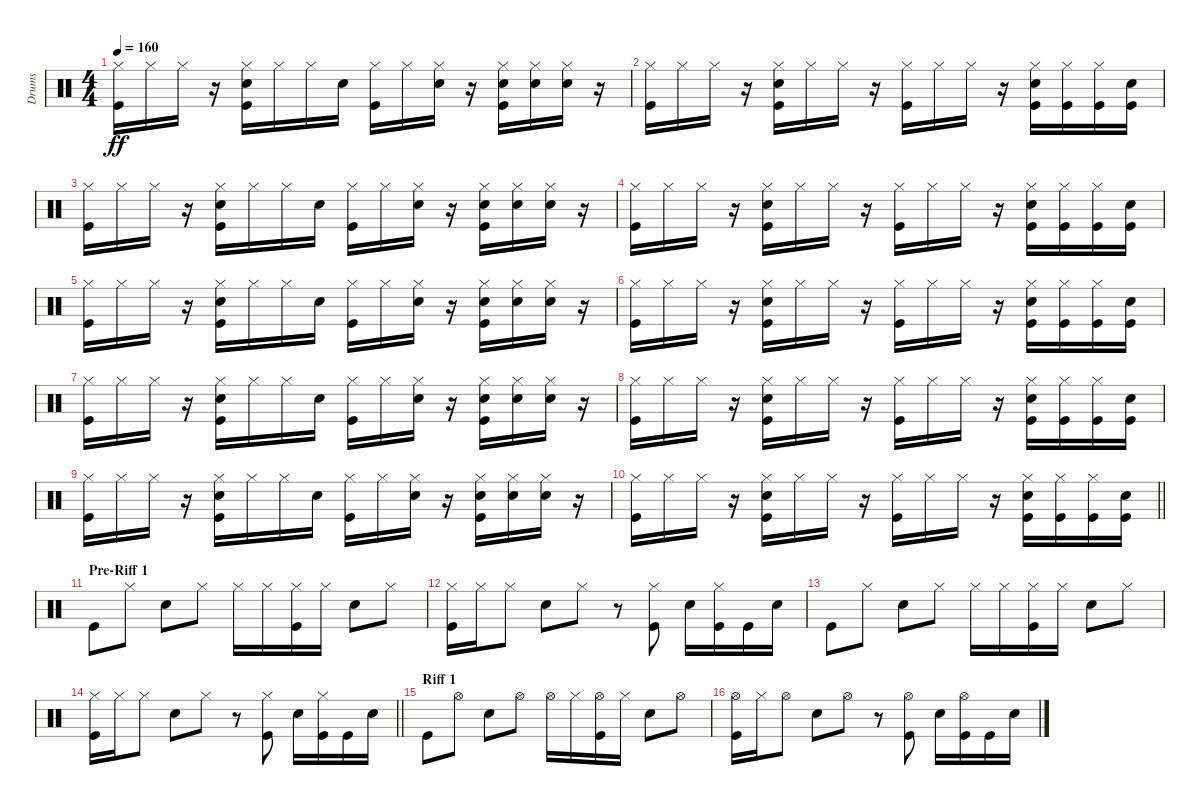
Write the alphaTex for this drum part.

\track ("Drums" "Drums") {instrument percussion}
\staff {score}
\articulation defaults
\ts (4 4)
\tempo 160
\clef neutral
\ks c
("Kick (hit)" "Hi-Hat (closed)").16{dy ff} "Hi-Hat (closed)".16 "Hi-Hat (closed)".16 r.16 ("Kick (hit)" "Snare (hit) 2" "Hi-Hat (closed)").16 "Hi-Hat (closed)".16 "Hi-Hat (closed)".16 "Electric Snare (hit)".16 ("Kick (hit)" "Hi-Hat (closed)").16 "Hi-Hat (closed)".16 ("Electric Snare (hit)" "Hi-Hat (closed)").16 r.16 ("Kick (hit)" "Snare (hit) 2" "Hi-Hat (closed)").16 ("Electric Snare (hit)" "Hi-Hat (closed)").16 ("Electric Snare (hit)" "Hi-Hat (closed)").16 r.16 |
("Kick (hit)" "Hi-Hat (closed)").16 "Hi-Hat (closed)".16 "Hi-Hat (closed)".16 r.16 ("Kick (hit)" "Snare (hit) 2" "Hi-Hat (closed)").16 "Hi-Hat (closed)".16 "Hi-Hat (closed)".16 r.16 ("Kick (hit)" "Hi-Hat (closed)").16 "Hi-Hat (closed)".16 "Hi-Hat (closed)".16 r.16 ("Kick (hit)" "Snare (hit) 2" "Hi-Hat (closed)").16 ("Kick (hit)" "Hi-Hat (closed)").16 ("Kick (hit)" "Hi-Hat (closed)").16 ("Kick (hit)" "Snare (hit) 2").16 |
("Kick (hit)" "Hi-Hat (closed)").16 "Hi-Hat (closed)".16 "Hi-Hat (closed)".16 r.16 ("Kick (hit)" "Snare (hit) 2" "Hi-Hat (closed)").16 "Hi-Hat (closed)".16 "Hi-Hat (closed)".16 "Electric Snare (hit)".16 ("Kick (hit)" "Hi-Hat (closed)").16 "Hi-Hat (closed)".16 ("Electric Snare (hit)" "Hi-Hat (closed)").16 r.16 ("Kick (hit)" "Snare (hit) 2" "Hi-Hat (closed)").16 ("Electric Snare (hit)" "Hi-Hat (closed)").16 ("Electric Snare (hit)" "Hi-Hat (closed)").16 r.16 |
("Kick (hit)" "Hi-Hat (closed)").16 "Hi-Hat (closed)".16 "Hi-Hat (closed)".16 r.16 ("Kick (hit)" "Snare (hit) 2" "Hi-Hat (closed)").16 "Hi-Hat (closed)".16 "Hi-Hat (closed)".16 r.16 ("Kick (hit)" "Hi-Hat (closed)").16 "Hi-Hat (closed)".16 "Hi-Hat (closed)".16 r.16 ("Kick (hit)" "Snare (hit) 2" "Hi-Hat (closed)").16 ("Kick (hit)" "Hi-Hat (closed)").16 ("Kick (hit)" "Hi-Hat (closed)").16 ("Kick (hit)" "Snare (hit) 2").16 |
("Kick (hit)" "Hi-Hat (closed)").16 "Hi-Hat (closed)".16 "Hi-Hat (closed)".16 r.16 ("Kick (hit)" "Snare (hit) 2" "Hi-Hat (closed)").16 "Hi-Hat (closed)".16 "Hi-Hat (closed)".16 "Electric Snare (hit)".16 ("Kick (hit)" "Hi-Hat (closed)").16 "Hi-Hat (closed)".16 ("Electric Snare (hit)" "Hi-Hat (closed)").16 r.16 ("Kick (hit)" "Snare (hit) 2" "Hi-Hat (closed)").16 ("Electric Snare (hit)" "Hi-Hat (closed)").16 ("Electric Snare (hit)" "Hi-Hat (closed)").16 r.16 |
("Kick (hit)" "Hi-Hat (closed)").16 "Hi-Hat (closed)".16 "Hi-Hat (closed)".16 r.16 ("Kick (hit)" "Snare (hit) 2" "Hi-Hat (closed)").16 "Hi-Hat (closed)".16 "Hi-Hat (closed)".16 r.16 ("Kick (hit)" "Hi-Hat (closed)").16 "Hi-Hat (closed)".16 "Hi-Hat (closed)".16 r.16 ("Kick (hit)" "Snare (hit) 2" "Hi-Hat (closed)").16 ("Kick (hit)" "Hi-Hat (closed)").16 ("Kick (hit)" "Hi-Hat (closed)").16 ("Kick (hit)" "Snare (hit) 2").16 |
("Kick (hit)" "Hi-Hat (closed)").16 "Hi-Hat (closed)".16 "Hi-Hat (closed)".16 r.16 ("Kick (hit)" "Snare (hit) 2" "Hi-Hat (closed)").16 "Hi-Hat (closed)".16 "Hi-Hat (closed)".16 "Electric Snare (hit)".16 ("Kick (hit)" "Hi-Hat (closed)").16 "Hi-Hat (closed)".16 ("Electric Snare (hit)" "Hi-Hat (closed)").16 r.16 ("Kick (hit)" "Snare (hit) 2" "Hi-Hat (closed)").16 ("Electric Snare (hit)" "Hi-Hat (closed)").16 ("Electric Snare (hit)" "Hi-Hat (closed)").16 r.16 |
("Kick (hit)" "Hi-Hat (closed)").16 "Hi-Hat (closed)".16 "Hi-Hat (closed)".16 r.16 ("Kick (hit)" "Snare (hit) 2" "Hi-Hat (closed)").16 "Hi-Hat (closed)".16 "Hi-Hat (closed)".16 r.16 ("Kick (hit)" "Hi-Hat (closed)").16 "Hi-Hat (closed)".16 "Hi-Hat (closed)".16 r.16 ("Kick (hit)" "Snare (hit) 2" "Hi-Hat (closed)").16 ("Kick (hit)" "Hi-Hat (closed)").16 ("Kick (hit)" "Hi-Hat (closed)").16 ("Kick (hit)" "Snare (hit) 2").16 |
("Kick (hit)" "Hi-Hat (closed)").16 "Hi-Hat (closed)".16 "Hi-Hat (closed)".16 r.16 ("Kick (hit)" "Snare (hit) 2" "Hi-Hat (closed)").16 "Hi-Hat (closed)".16 "Hi-Hat (closed)".16 "Electric Snare (hit)".16 ("Kick (hit)" "Hi-Hat (closed)").16 "Hi-Hat (closed)".16 ("Electric Snare (hit)" "Hi-Hat (closed)").16 r.16 ("Kick (hit)" "Snare (hit) 2" "Hi-Hat (closed)").16 ("Electric Snare (hit)" "Hi-Hat (closed)").16 ("Electric Snare (hit)" "Hi-Hat (closed)").16 r.16 |
\barLineRight lightlight
("Kick (hit)" "Hi-Hat (closed)").16 "Hi-Hat (closed)".16 "Hi-Hat (closed)".16 r.16 ("Kick (hit)" "Snare (hit) 2" "Hi-Hat (closed)").16 "Hi-Hat (closed)".16 "Hi-Hat (closed)".16 r.16 ("Kick (hit)" "Hi-Hat (closed)").16 "Hi-Hat (closed)".16 "Hi-Hat (closed)".16 r.16 ("Kick (hit)" "Snare (hit) 2" "Hi-Hat (closed)").16 ("Kick (hit)" "Hi-Hat (closed)").16 ("Kick (hit)" "Hi-Hat (closed)").16 ("Kick (hit)" "Snare (hit) 2").16 |
\section ("" "Pre-Riff 1")
"Kick (hit)".8 "Hi-Hat (closed)".8 "Snare (hit) 2".8 "Hi-Hat (closed)".8 "Hi-Hat (closed)".16 "Hi-Hat (closed)".16 ("Kick (hit)" "Hi-Hat (closed)").16 "Hi-Hat (closed)".16 "Snare (hit) 2".8 "Hi-Hat (closed)".8 |
("Kick (hit)" "Hi-Hat (closed)").16 "Hi-Hat (closed)".16 "Hi-Hat (closed)".8 "Snare (hit) 2".8 "Hi-Hat (closed)".8 r.8 ("Kick (hit)" "Hi-Hat (closed)").8 "Snare (hit) 2".16 ("Kick (hit)" "Hi-Hat (closed)").16 "Kick (hit)".16 "Snare (hit) 2".16 |
"Kick (hit)".8 "Hi-Hat (closed)".8 "Snare (hit) 2".8 "Hi-Hat (closed)".8 "Hi-Hat (closed)".16 "Hi-Hat (closed)".16 ("Kick (hit)" "Hi-Hat (closed)").16 "Hi-Hat (closed)".16 "Snare (hit) 2".8 "Hi-Hat (closed)".8 |
\barLineRight lightlight
("Kick (hit)" "Hi-Hat (closed)").16 "Hi-Hat (closed)".16 "Hi-Hat (closed)".8 "Snare (hit) 2".8 "Hi-Hat (closed)".8 r.8 ("Kick (hit)" "Hi-Hat (closed)").8 "Snare (hit) 2".16 ("Kick (hit)" "Hi-Hat (closed)").16 "Kick (hit)".16 "Snare (hit) 2".16 |
\section ("" "Riff 1")
"Kick (hit)".8 "Hi-Hat (open)".8 "Snare (hit) 2".8 "Hi-Hat (open)".8 "Hi-Hat (open)".16 "Hi-Hat (closed)".16 ("Kick (hit)" "Hi-Hat (open)").16 "Hi-Hat (closed)".16 "Snare (hit) 2".8 "Hi-Hat (open)".8 |
("Kick (hit)" "Hi-Hat (open)").16 "Hi-Hat (closed)".16 "Hi-Hat (open)".8 "Snare (hit) 2".8 "Hi-Hat (open)".8 r.8 ("Kick (hit)" "Hi-Hat (open)").8 "Snare (hit) 2".16 ("Kick (hit)" "Hi-Hat (open)").16 "Kick (hit)".16 "Snare (hit) 2".16
